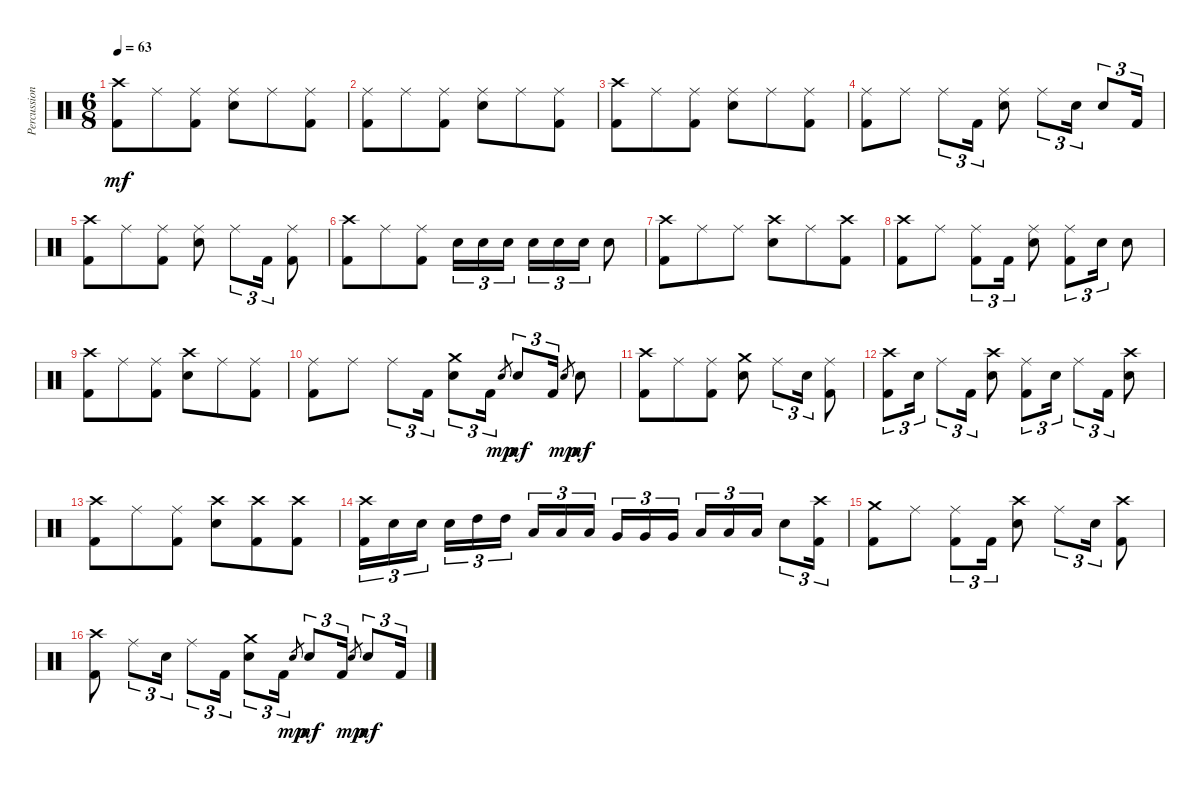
\track ("Percussion" "Percussion") {instrument percussion}
\staff {score}
\articulation defaults
\ts (6 8)
\tempo 63
\clef neutral
\ks c
("Crash high (hit)" "Kick (hit) 2").8{dy mf} "Ride (middle)".8 ("Ride (middle)" "Kick (hit) 2").8 ("Ride (middle)" "Electric Snare (hit)").8 "Ride (middle)".8 ("Ride (middle)" "Kick (hit) 2").8 |
("Ride (middle)" "Kick (hit) 2").8 "Ride (middle)".8 ("Ride (middle)" "Kick (hit) 2").8 ("Ride (middle)" "Electric Snare (hit)").8 "Ride (middle)".8 ("Ride (middle)" "Kick (hit) 2").8 |
("Crash high (hit)" "Kick (hit) 2").8 "Ride (middle)".8 ("Ride (middle)" "Kick (hit) 2").8 ("Ride (middle)" "Electric Snare (hit)").8 "Ride (middle)".8 ("Ride (middle)" "Kick (hit) 2").8 |
("Ride (middle)" "Kick (hit) 2").8 "Ride (middle)".8 "Ride (middle)".8{tu (3 2)} "Kick (hit) 2".16{tu (3 2)} ("Ride (middle)" "Electric Snare (hit)").8 "Ride (middle)".8{tu (3 2)} "Electric Snare (hit)".16{tu (3 2)} "Electric Snare (hit)".8{tu (3 2)} "Kick (hit) 2".16{tu (3 2)} |
("Crash high (hit)" "Kick (hit) 2").8 "Ride (middle)".8 ("Ride (middle)" "Kick (hit) 2").8 ("Ride (middle)" "Electric Snare (hit)").8 "Ride (middle)".8{tu (3 2)} "Kick (hit) 2".16{tu (3 2)} ("Ride (middle)" "Kick (hit) 2").8 |
("Crash high (hit)" "Kick (hit) 2").8 "Ride (middle)".8 ("Ride (middle)" "Kick (hit) 2").8 "Electric Snare (hit)".16{tu (3 2)} "Electric Snare (hit)".16{tu (3 2)} "Electric Snare (hit)".16{tu (3 2)} "Electric Snare (hit)".16{tu (3 2)} "Electric Snare (hit)".16{tu (3 2)} "Electric Snare (hit)".16{tu (3 2)} "Electric Snare (hit)".8 |
("Crash high (hit)" "Kick (hit) 2").8 "Ride (middle)".8 "Ride (middle)".8 ("Crash high (hit)" "Electric Snare (hit)").8 "Ride (middle)".8 ("Crash high (hit)" "Kick (hit) 2").8 |
("Crash high (hit)" "Kick (hit) 2").8 "Ride (middle)".8 ("Ride (middle)" "Kick (hit) 2").8{tu (3 2)} "Kick (hit) 2".16{tu (3 2)} ("Ride (middle)" "Electric Snare (hit)").8 ("Ride (middle)" "Kick (hit) 2").8{tu (3 2)} "Electric Snare (hit)".16{tu (3 2)} "Electric Snare (hit)".8 |
("Crash high (hit)" "Kick (hit) 2").8 "Ride (middle)".8 ("Ride (middle)" "Kick (hit) 2").8 ("Crash high (hit)" "Electric Snare (hit)").8 "Ride (middle)".8 ("Ride (middle)" "Kick (hit) 2").8 |
("Ride (middle)" "Kick (hit) 2").8 "Ride (middle)".8 "Ride (middle)".8{tu (3 2)} "Kick (hit) 2".16{tu (3 2)} ("Crash medium (hit)" "Electric Snare (hit)").8{tu (3 2)} "Kick (hit) 2".16{tu (3 2)} "Electric Snare (hit)".8{gr dy mp} "Electric Snare (hit)".8{tu (3 2) dy mf} "Kick (hit) 2".16{tu (3 2)} "Electric Snare (hit)".8{gr dy mp} "Electric Snare (hit)".8{dy mf} |
("Crash high (hit)" "Kick (hit) 2").8 "Ride (middle)".8 ("Ride (middle)" "Kick (hit) 2").8 ("Crash medium (hit)" "Electric Snare (hit)").8 "Ride (middle)".8{tu (3 2)} "Electric Snare (hit)".16{tu (3 2)} ("Ride (middle)" "Kick (hit) 2").8 |
("Crash high (hit)" "Kick (hit) 2").8{tu (3 2)} "Electric Snare (hit)".16{tu (3 2)} "Ride (middle)".8{tu (3 2)} "Kick (hit) 2".16{tu (3 2)} ("Crash high (hit)" "Electric Snare (hit)").8 ("Ride (middle)" "Kick (hit) 2").8{tu (3 2)} "Electric Snare (hit)".16{tu (3 2)} "Ride (middle)".8{tu (3 2)} "Kick (hit) 2".16{tu (3 2)} ("Crash high (hit)" "Electric Snare (hit)").8 |
("Crash high (hit)" "Kick (hit) 2").8 "Ride (middle)".8 ("Ride (middle)" "Kick (hit) 2").8 ("Crash high (hit)" "Electric Snare (hit)").8 ("Crash high (hit)" "Kick (hit) 2").8 ("Crash high (hit)" "Kick (hit) 2").8 |
("Crash high (hit)" "Kick (hit) 2").16{tu (3 2)} "Electric Snare (hit)".16{tu (3 2)} "Electric Snare (hit)".16{tu (3 2)} "Electric Snare (hit)".16{tu (3 2)} "High Tom (hit)".16{tu (3 2)} "High Tom (hit)".16{tu (3 2)} "Low Tom (hit)".16{tu (3 2)} "Low Tom (hit)".16{tu (3 2)} "Low Tom (hit)".16{tu (3 2)} "Very Low Tom (hit)".16{tu (3 2)} "Very Low Tom (hit)".16{tu (3 2)} "Very Low Tom (hit)".16{tu (3 2)} "Low Floor Tom (hit)".16{tu (3 2)} "Low Floor Tom (hit)".16{tu (3 2)} "Low Floor Tom (hit)".16{tu (3 2)} "Electric Snare (hit)".8{tu (3 2)} ("Crash high (hit)" "Kick (hit) 2").16{tu (3 2)} |
("Crash medium (hit)" "Kick (hit) 2").8 "Ride (middle)".8 ("Ride (middle)" "Kick (hit) 2").8{tu (3 2)} "Kick (hit) 2".16{tu (3 2)} ("Crash high (hit)" "Electric Snare (hit)").8 "Ride (middle)".8{tu (3 2)} "Electric Snare (hit)".16{tu (3 2)} ("Crash high (hit)" "Kick (hit) 2").8 |
("Crash high (hit)" "Kick (hit) 2").8 "Ride (middle)".8{tu (3 2)} "Electric Snare (hit)".16{tu (3 2)} "Ride (middle)".8{tu (3 2)} "Kick (hit) 2".16{tu (3 2)} ("Crash medium (hit)" "Electric Snare (hit)").8{tu (3 2)} "Kick (hit) 2".16{tu (3 2)} "Electric Snare (hit)".8{gr dy mp} "Electric Snare (hit)".8{tu (3 2) dy mf} "Kick (hit) 2".16{tu (3 2)} "Electric Snare (hit)".8{gr dy mp} "Electric Snare (hit)".8{tu (3 2) dy mf} "Kick (hit) 2".16{tu (3 2)}
